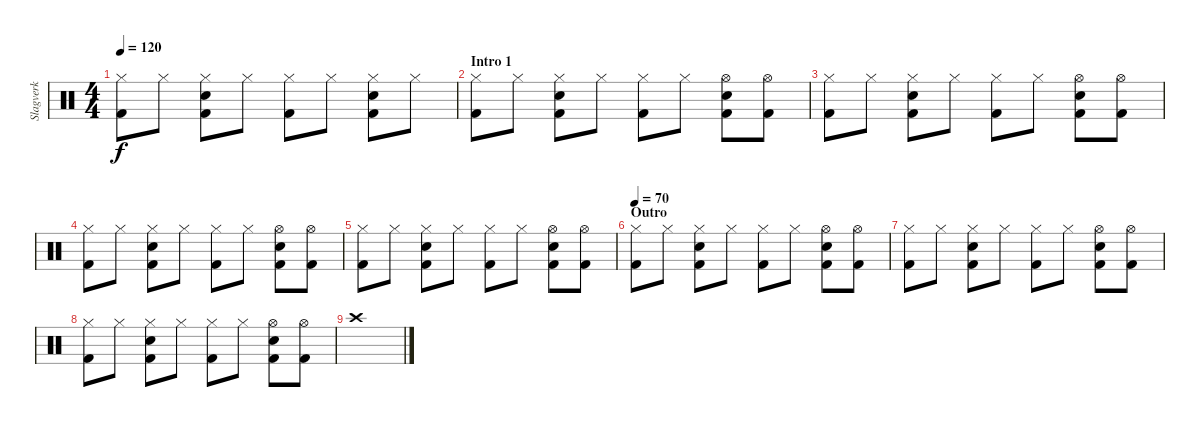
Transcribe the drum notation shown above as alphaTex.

\track ("Slagverk" "Slagverk") {instrument percussion}
\staff {score}
\articulation defaults
\ts (4 4)
\tempo 120
\clef neutral
\ks c
("Kick (hit) 2" "Hi-Hat (closed)").8{dy f} "Hi-Hat (closed)".8 ("Kick (hit) 2" "Hi-Hat (closed)" "Snare (hit) 2").8 "Hi-Hat (closed)".8 ("Kick (hit) 2" "Hi-Hat (closed)").8 "Hi-Hat (closed)".8 ("Kick (hit) 2" "Hi-Hat (closed)" "Snare (hit) 2").8 "Hi-Hat (closed)".8 |
\section ("" "Intro 1")
("Kick (hit) 2" "Hi-Hat (closed)").8 "Hi-Hat (closed)".8 ("Kick (hit) 2" "Hi-Hat (closed)" "Snare (hit) 2").8 "Hi-Hat (closed)".8 ("Kick (hit) 2" "Hi-Hat (closed)").8 "Hi-Hat (closed)".8 ("Kick (hit) 2" "Hi-Hat (open)" "Snare (hit) 2").8 ("Kick (hit) 2" "Hi-Hat (open)").8 |
("Kick (hit) 2" "Hi-Hat (closed)").8 "Hi-Hat (closed)".8 ("Kick (hit) 2" "Hi-Hat (closed)" "Snare (hit) 2").8 "Hi-Hat (closed)".8 ("Kick (hit) 2" "Hi-Hat (closed)").8 "Hi-Hat (closed)".8 ("Kick (hit) 2" "Hi-Hat (open)" "Snare (hit) 2").8 ("Kick (hit) 2" "Hi-Hat (open)").8 |
("Kick (hit) 2" "Hi-Hat (closed)").8 "Hi-Hat (closed)".8 ("Kick (hit) 2" "Hi-Hat (closed)" "Snare (hit) 2").8 "Hi-Hat (closed)".8 ("Kick (hit) 2" "Hi-Hat (closed)").8 "Hi-Hat (closed)".8 ("Kick (hit) 2" "Hi-Hat (open)" "Snare (hit) 2").8 ("Kick (hit) 2" "Hi-Hat (open)").8 |
("Kick (hit) 2" "Hi-Hat (closed)").8 "Hi-Hat (closed)".8 ("Kick (hit) 2" "Hi-Hat (closed)" "Snare (hit) 2").8 "Hi-Hat (closed)".8 ("Kick (hit) 2" "Hi-Hat (closed)").8 "Hi-Hat (closed)".8 ("Kick (hit) 2" "Hi-Hat (open)" "Snare (hit) 2").8 ("Kick (hit) 2" "Hi-Hat (open)").8 |
\section ("" "Outro")
\tempo 70
("Kick (hit) 2" "Hi-Hat (closed)").8 "Hi-Hat (closed)".8 ("Kick (hit) 2" "Hi-Hat (closed)" "Snare (hit) 2").8 "Hi-Hat (closed)".8 ("Kick (hit) 2" "Hi-Hat (closed)").8 "Hi-Hat (closed)".8 ("Kick (hit) 2" "Hi-Hat (open)" "Snare (hit) 2").8 ("Kick (hit) 2" "Hi-Hat (open)").8 |
("Kick (hit) 2" "Hi-Hat (closed)").8 "Hi-Hat (closed)".8 ("Kick (hit) 2" "Hi-Hat (closed)" "Snare (hit) 2").8 "Hi-Hat (closed)".8 ("Kick (hit) 2" "Hi-Hat (closed)").8 "Hi-Hat (closed)".8 ("Kick (hit) 2" "Hi-Hat (open)" "Snare (hit) 2").8 ("Kick (hit) 2" "Hi-Hat (open)").8 |
("Kick (hit) 2" "Hi-Hat (closed)").8 "Hi-Hat (closed)".8 ("Kick (hit) 2" "Hi-Hat (closed)" "Snare (hit) 2").8 "Hi-Hat (closed)".8 ("Kick (hit) 2" "Hi-Hat (closed)").8 "Hi-Hat (closed)".8 ("Kick (hit) 2" "Hi-Hat (open)" "Snare (hit) 2").8 ("Kick (hit) 2" "Hi-Hat (open)").8 |
"Crash high (hit)".1
